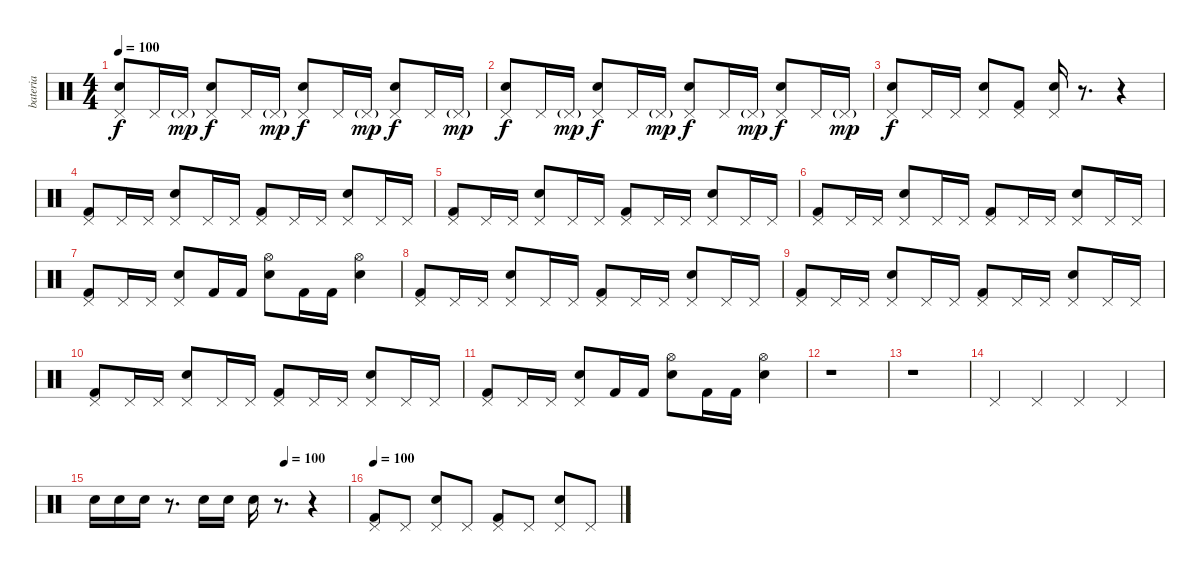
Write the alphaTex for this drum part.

\track ("bateria" "bateria") {instrument percussion}
\staff {score}
\articulation defaults
\ts (4 4)
\tempo 100
\clef neutral
\ks c
("Pedal Hi-Hat (hit)" "Snare (hit) 2").8{dy f} "Pedal Hi-Hat (hit)".16 "Pedal Hi-Hat (hit)"{g}.16{dy mp} ("Pedal Hi-Hat (hit)" "Snare (hit) 2").8{dy f} "Pedal Hi-Hat (hit)".16 "Pedal Hi-Hat (hit)"{g}.16{dy mp} ("Pedal Hi-Hat (hit)" "Snare (hit) 2").8{dy f} "Pedal Hi-Hat (hit)".16 "Pedal Hi-Hat (hit)"{g}.16{dy mp} ("Pedal Hi-Hat (hit)" "Snare (hit) 2").8{dy f} "Pedal Hi-Hat (hit)".16 "Pedal Hi-Hat (hit)"{g}.16{dy mp} |
("Pedal Hi-Hat (hit)" "Snare (hit) 2").8{dy f} "Pedal Hi-Hat (hit)".16 "Pedal Hi-Hat (hit)"{g}.16{dy mp} ("Pedal Hi-Hat (hit)" "Snare (hit) 2").8{dy f} "Pedal Hi-Hat (hit)".16 "Pedal Hi-Hat (hit)"{g}.16{dy mp} ("Pedal Hi-Hat (hit)" "Snare (hit) 2").8{dy f} "Pedal Hi-Hat (hit)".16 "Pedal Hi-Hat (hit)"{g}.16{dy mp} ("Pedal Hi-Hat (hit)" "Snare (hit) 2").8{dy f} "Pedal Hi-Hat (hit)".16 "Pedal Hi-Hat (hit)"{g}.16{dy mp} |
("Pedal Hi-Hat (hit)" "Snare (hit) 2").8{dy f} "Pedal Hi-Hat (hit)".16 "Pedal Hi-Hat (hit)".16 ("Pedal Hi-Hat (hit)" "Snare (hit) 2").8 ("Pedal Hi-Hat (hit)" "Kick (hit) 2").8 ("Pedal Hi-Hat (hit)" "Snare (hit) 2").16 r.8{d} r.4 |
\section ("" "")
("Pedal Hi-Hat (hit)" "Kick (hit) 2").8 "Pedal Hi-Hat (hit)".16 "Pedal Hi-Hat (hit)".16 ("Pedal Hi-Hat (hit)" "Snare (hit) 2").8 "Pedal Hi-Hat (hit)".16 "Pedal Hi-Hat (hit)".16 ("Pedal Hi-Hat (hit)" "Kick (hit) 2").8 "Pedal Hi-Hat (hit)".16 "Pedal Hi-Hat (hit)".16 ("Pedal Hi-Hat (hit)" "Snare (hit) 2").8 "Pedal Hi-Hat (hit)".16 "Pedal Hi-Hat (hit)".16 |
("Pedal Hi-Hat (hit)" "Kick (hit) 2").8 "Pedal Hi-Hat (hit)".16 "Pedal Hi-Hat (hit)".16 ("Pedal Hi-Hat (hit)" "Snare (hit) 2").8 "Pedal Hi-Hat (hit)".16 "Pedal Hi-Hat (hit)".16 ("Pedal Hi-Hat (hit)" "Kick (hit) 2").8 "Pedal Hi-Hat (hit)".16 "Pedal Hi-Hat (hit)".16 ("Pedal Hi-Hat (hit)" "Snare (hit) 2").8 "Pedal Hi-Hat (hit)".16 "Pedal Hi-Hat (hit)".16 |
("Pedal Hi-Hat (hit)" "Kick (hit) 2").8 "Pedal Hi-Hat (hit)".16 "Pedal Hi-Hat (hit)".16 ("Pedal Hi-Hat (hit)" "Snare (hit) 2").8 "Pedal Hi-Hat (hit)".16 "Pedal Hi-Hat (hit)".16 ("Pedal Hi-Hat (hit)" "Kick (hit) 2").8 "Pedal Hi-Hat (hit)".16 "Pedal Hi-Hat (hit)".16 ("Pedal Hi-Hat (hit)" "Snare (hit) 2").8 "Pedal Hi-Hat (hit)".16 "Pedal Hi-Hat (hit)".16 |
("Pedal Hi-Hat (hit)" "Kick (hit) 2").8 "Pedal Hi-Hat (hit)".16 "Pedal Hi-Hat (hit)".16 ("Pedal Hi-Hat (hit)" "Snare (hit) 2").8 "Kick (hit) 2".16 "Kick (hit) 2".16 ("Hi-Hat (open)" "Snare (hit) 2").8 "Kick (hit) 2".16 "Kick (hit) 2".16 ("Hi-Hat (open)" "Snare (hit) 2").4 |
("Pedal Hi-Hat (hit)" "Kick (hit) 2").8 "Pedal Hi-Hat (hit)".16 "Pedal Hi-Hat (hit)".16 ("Pedal Hi-Hat (hit)" "Snare (hit) 2").8 "Pedal Hi-Hat (hit)".16 "Pedal Hi-Hat (hit)".16 ("Pedal Hi-Hat (hit)" "Kick (hit) 2").8 "Pedal Hi-Hat (hit)".16 "Pedal Hi-Hat (hit)".16 ("Pedal Hi-Hat (hit)" "Snare (hit) 2").8 "Pedal Hi-Hat (hit)".16 "Pedal Hi-Hat (hit)".16 |
("Pedal Hi-Hat (hit)" "Kick (hit) 2").8 "Pedal Hi-Hat (hit)".16 "Pedal Hi-Hat (hit)".16 ("Pedal Hi-Hat (hit)" "Snare (hit) 2").8 "Pedal Hi-Hat (hit)".16 "Pedal Hi-Hat (hit)".16 ("Pedal Hi-Hat (hit)" "Kick (hit) 2").8 "Pedal Hi-Hat (hit)".16 "Pedal Hi-Hat (hit)".16 ("Pedal Hi-Hat (hit)" "Snare (hit) 2").8 "Pedal Hi-Hat (hit)".16 "Pedal Hi-Hat (hit)".16 |
("Pedal Hi-Hat (hit)" "Kick (hit) 2").8 "Pedal Hi-Hat (hit)".16 "Pedal Hi-Hat (hit)".16 ("Pedal Hi-Hat (hit)" "Snare (hit) 2").8 "Pedal Hi-Hat (hit)".16 "Pedal Hi-Hat (hit)".16 ("Pedal Hi-Hat (hit)" "Kick (hit) 2").8 "Pedal Hi-Hat (hit)".16 "Pedal Hi-Hat (hit)".16 ("Pedal Hi-Hat (hit)" "Snare (hit) 2").8 "Pedal Hi-Hat (hit)".16 "Pedal Hi-Hat (hit)".16 |
("Pedal Hi-Hat (hit)" "Kick (hit) 2").8 "Pedal Hi-Hat (hit)".16 "Pedal Hi-Hat (hit)".16 ("Pedal Hi-Hat (hit)" "Snare (hit) 2").8 "Kick (hit) 2".16 "Kick (hit) 2".16 ("Hi-Hat (open)" "Snare (hit) 2").8 "Kick (hit) 2".16 "Kick (hit) 2".16 ("Hi-Hat (open)" "Snare (hit) 2").4 |
r.1 |
r.1 |
"Pedal Hi-Hat (hit)".4 "Pedal Hi-Hat (hit)".4 "Pedal Hi-Hat (hit)".4 "Pedal Hi-Hat (hit)".4 |
\tempo (100 0.75)
"Snare (hit) 2".16 "Snare (hit) 2".16 "Snare (hit) 2".16 r.8{d} "Snare (hit) 2".16 "Snare (hit) 2".16 "Snare (hit) 2".16 r.8{d} r.4 |
\section ("" "")
\tempo 100
("Pedal Hi-Hat (hit)" "Kick (hit) 2").8 "Pedal Hi-Hat (hit)".8 ("Pedal Hi-Hat (hit)" "Snare (hit) 2").8 "Pedal Hi-Hat (hit)".8 ("Pedal Hi-Hat (hit)" "Kick (hit) 2").8 "Pedal Hi-Hat (hit)".8 ("Pedal Hi-Hat (hit)" "Snare (hit) 2").8 "Pedal Hi-Hat (hit)".8
